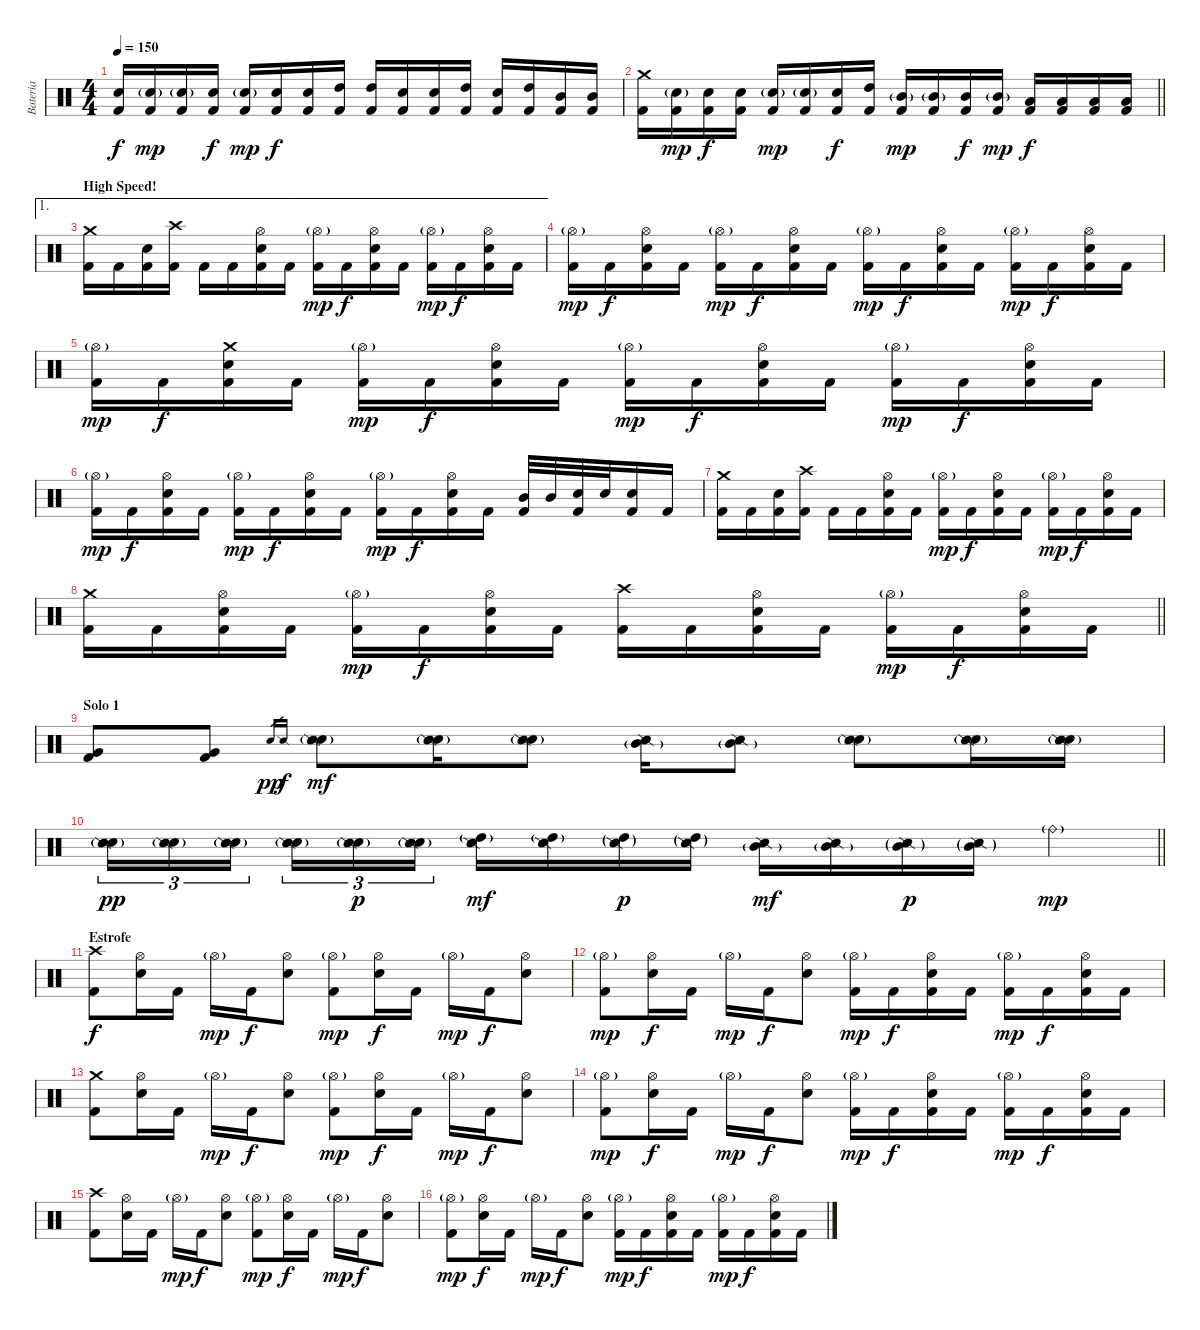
\track ("Bateria" "Bateria") {instrument percussion}
\staff {score}
\articulation defaults
\ts (4 4)
\tempo 150
\clef neutral
\ks c
("Electric Snare (hit)" "Kick (hit) 2").16{dy f} ("Electric Snare (hit)"{g} "Kick (hit) 2").16{dy mp} ("Electric Snare (hit)"{g} "Kick (hit) 2").16 ("Electric Snare (hit)" "Kick (hit) 2").16{dy f} ("Electric Snare (hit)"{g} "Kick (hit) 2").16{dy mp} ("Electric Snare (hit)" "Kick (hit) 2").16{dy f} ("Electric Snare (hit)" "Kick (hit) 2").16 ("High Tom (hit)" "Kick (hit) 2").16 ("High Tom (hit)" "Kick (hit) 2").16 ("Electric Snare (hit)" "Kick (hit) 2").16 ("Electric Snare (hit)" "Kick (hit) 2").16 ("High Tom (hit)" "Kick (hit) 2").16 ("Electric Snare (hit)" "Kick (hit) 2").16 ("High Tom (hit)" "Kick (hit) 2").16 ("Mid Tom (hit)" "Kick (hit) 2").16 ("Mid Tom (hit)" "Kick (hit) 2").16 |
\barLineRight lightlight
("Crash medium (hit)" "Kick (hit) 2").16 ("Electric Snare (hit)"{g} "Kick (hit) 2").16{dy mp} ("Electric Snare (hit)" "Kick (hit) 2").16{dy f} ("Electric Snare (hit)" "Kick (hit) 2").16 ("Electric Snare (hit)"{g} "Kick (hit) 2").16{dy mp} ("Electric Snare (hit)"{g} "Kick (hit) 2").16 ("Electric Snare (hit)" "Kick (hit) 2").16{dy f} ("High Tom (hit)" "Kick (hit) 2").16 ("Mid Tom (hit)"{g} "Kick (hit) 2").16{dy mp} ("Mid Tom (hit)"{g} "Kick (hit) 2").16 ("Mid Tom (hit)" "Kick (hit) 2").16{dy f} ("Mid Tom (hit)"{g} "Kick (hit) 2").16{dy mp} ("Low Tom (hit)" "Kick (hit) 2").16{dy f} ("Low Tom (hit)" "Kick (hit) 2").16 ("Low Tom (hit)" "Kick (hit) 2").16 ("Low Tom (hit)" "Kick (hit) 2").16 |
\ae 1
\section ("" "High Speed!")
("Crash medium (hit)" "Kick (hit) 2").16 "Kick (hit) 2".16 ("Electric Snare (hit)" "Kick (hit) 2").16 ("Crash high (hit)" "Kick (hit) 2").16 "Kick (hit) 2".16 "Kick (hit) 2".16 ("Hi-Hat (open)" "Electric Snare (hit)" "Kick (hit) 2").16 "Kick (hit) 2".16 ("Hi-Hat (open)"{g} "Kick (hit) 2").16{dy mp} "Kick (hit) 2".16{dy f} ("Hi-Hat (open)" "Electric Snare (hit)" "Kick (hit) 2").16 "Kick (hit) 2".16 ("Hi-Hat (open)"{g} "Kick (hit) 2").16{dy mp} "Kick (hit) 2".16{dy f} ("Hi-Hat (open)" "Electric Snare (hit)" "Kick (hit) 2").16 "Kick (hit) 2".16 |
("Hi-Hat (open)"{g} "Kick (hit) 2").16{dy mp} "Kick (hit) 2".16{dy f} ("Hi-Hat (open)" "Electric Snare (hit)" "Kick (hit) 2").16 "Kick (hit) 2".16 ("Hi-Hat (open)"{g} "Kick (hit) 2").16{dy mp} "Kick (hit) 2".16{dy f} ("Hi-Hat (open)" "Electric Snare (hit)" "Kick (hit) 2").16 "Kick (hit) 2".16 ("Hi-Hat (open)"{g} "Kick (hit) 2").16{dy mp} "Kick (hit) 2".16{dy f} ("Hi-Hat (open)" "Electric Snare (hit)" "Kick (hit) 2").16 "Kick (hit) 2".16 ("Hi-Hat (open)"{g} "Kick (hit) 2").16{dy mp} "Kick (hit) 2".16{dy f} ("Hi-Hat (open)" "Electric Snare (hit)" "Kick (hit) 2").16 "Kick (hit) 2".16 |
("Hi-Hat (open)"{g} "Kick (hit) 2").16{dy mp} "Kick (hit) 2".16{dy f} ("Crash medium (hit)" "Electric Snare (hit)" "Kick (hit) 2").16 "Kick (hit) 2".16 ("Hi-Hat (open)"{g} "Kick (hit) 2").16{dy mp} "Kick (hit) 2".16{dy f} ("Hi-Hat (open)" "Electric Snare (hit)" "Kick (hit) 2").16 "Kick (hit) 2".16 ("Hi-Hat (open)"{g} "Kick (hit) 2").16{dy mp} "Kick (hit) 2".16{dy f} ("Hi-Hat (open)" "Electric Snare (hit)" "Kick (hit) 2").16 "Kick (hit) 2".16 ("Hi-Hat (open)"{g} "Kick (hit) 2").16{dy mp} "Kick (hit) 2".16{dy f} ("Hi-Hat (open)" "Electric Snare (hit)" "Kick (hit) 2").16 "Kick (hit) 2".16 |
("Hi-Hat (open)"{g} "Kick (hit) 2").16{dy mp} "Kick (hit) 2".16{dy f} ("Hi-Hat (open)" "Electric Snare (hit)" "Kick (hit) 2").16 "Kick (hit) 2".16 ("Hi-Hat (open)"{g} "Kick (hit) 2").16{dy mp} "Kick (hit) 2".16{dy f} ("Hi-Hat (open)" "Electric Snare (hit)" "Kick (hit) 2").16 "Kick (hit) 2".16 ("Hi-Hat (open)"{g} "Kick (hit) 2").16{dy mp} "Kick (hit) 2".16{dy f} ("Hi-Hat (open)" "Electric Snare (hit)" "Kick (hit) 2").16 "Kick (hit) 2".16 ("Mid Tom (hit)" "Kick (hit) 2").32 "Mid Tom (hit)".32 ("Electric Snare (hit)" "Kick (hit) 2").32 "Electric Snare (hit)".32 ("Electric Snare (hit)" "Kick (hit) 2").16 "Kick (hit) 2".16 |
("Crash medium (hit)" "Kick (hit) 2").16 "Kick (hit) 2".16 ("Electric Snare (hit)" "Kick (hit) 2").16 ("Crash high (hit)" "Kick (hit) 2").16 "Kick (hit) 2".16 "Kick (hit) 2".16 ("Hi-Hat (open)" "Electric Snare (hit)" "Kick (hit) 2").16 "Kick (hit) 2".16 ("Hi-Hat (open)"{g} "Kick (hit) 2").16{dy mp} "Kick (hit) 2".16{dy f} ("Hi-Hat (open)" "Electric Snare (hit)" "Kick (hit) 2").16 "Kick (hit) 2".16 ("Hi-Hat (open)"{g} "Kick (hit) 2").16{dy mp} "Kick (hit) 2".16{dy f} ("Hi-Hat (open)" "Electric Snare (hit)" "Kick (hit) 2").16 "Kick (hit) 2".16 |
\barLineRight lightlight
("Crash medium (hit)" "Kick (hit) 2").16 "Kick (hit) 2".16 ("Hi-Hat (open)" "Electric Snare (hit)" "Kick (hit) 2").16 "Kick (hit) 2".16 ("Hi-Hat (open)"{g} "Kick (hit) 2").16{dy mp} "Kick (hit) 2".16{dy f} ("Hi-Hat (open)" "Electric Snare (hit)" "Kick (hit) 2").16 "Kick (hit) 2".16 ("Crash high (hit)" "Kick (hit) 2").16 "Kick (hit) 2".16 ("Hi-Hat (open)" "Electric Snare (hit)" "Kick (hit) 2").16 "Kick (hit) 2".16 ("Hi-Hat (open)"{g} "Kick (hit) 2").16{dy mp} "Kick (hit) 2".16{dy f} ("Hi-Hat (open)" "Electric Snare (hit)" "Kick (hit) 2").16 "Kick (hit) 2".16 |
\section ("" "Solo 1")
("Very Low Tom (hit)" "Kick (hit) 2").8 ("Very Low Tom (hit)" "Kick (hit) 2").8 "Electric Snare (hit)".16{gr dy pp} "Snare (side stick) 2".16{gr dy f} ("Electric Snare (hit)"{g} "Snare (side stick) 2").8{dy mf} ("Electric Snare (hit)"{g} "Snare (side stick) 2").16 ("Electric Snare (hit)"{g} "Snare (side stick) 2").8 ("Mid Tom (hit)"{g} "Snare (side stick) 2").16 ("Mid Tom (hit)"{g} "Snare (side stick) 2").8 ("Electric Snare (hit)"{g} "Snare (side stick) 2").8 ("Electric Snare (hit)"{g} "Snare (side stick) 2").16 ("Electric Snare (hit)"{g} "Snare (side stick) 2").16 |
\barLineRight lightlight
("Electric Snare (hit)"{g} "Snare (side stick) 2").16{tu (3 2) dy pp} ("Electric Snare (hit)"{g} "Snare (side stick) 2").16{tu (3 2)} ("Electric Snare (hit)"{g} "Snare (side stick) 2").16{tu (3 2) beam splitsecondary} ("Electric Snare (hit)"{g} "Snare (side stick) 2").16{tu (3 2)} ("Electric Snare (hit)"{g} "Snare (side stick) 2"{g}).16{tu (3 2) dy p} ("Electric Snare (hit)"{g} "Snare (side stick) 2"{g}).16{tu (3 2)} ("High Tom (hit)"{g} "Snare (side stick) 2").16{dy mf} ("High Tom (hit)"{g} "Snare (side stick) 2").16 ("High Tom (hit)"{g} "Snare (side stick) 2"{g}).16{dy p} ("High Tom (hit)"{g} "Snare (side stick) 2"{g}).16 ("Mid Tom (hit)"{g} "Snare (side stick) 2").16{dy mf} ("Mid Tom (hit)"{g} "Snare (side stick) 2").16 ("Mid Tom (hit)"{g} "Snare (side stick) 2"{g}).16{dy p} ("Mid Tom (hit)"{g} "Snare (side stick) 2"{g}).16 "Ride (bell)"{g}.4{dy mp} |
\section ("" "Estrofe")
("Crash high (hit)" "Kick (hit) 2").8{dy f} ("Hi-Hat (open)" "Electric Snare (hit)").16 "Kick (hit) 2".16 "Hi-Hat (open)"{g}.16{dy mp} "Kick (hit) 2".16{dy f} ("Hi-Hat (open)" "Electric Snare (hit)").8 ("Hi-Hat (open)"{g} "Kick (hit) 2").8{dy mp} ("Hi-Hat (open)" "Electric Snare (hit)").16{dy f} "Kick (hit) 2".16 "Hi-Hat (open)"{g}.16{dy mp} "Kick (hit) 2".16{dy f} ("Hi-Hat (open)" "Electric Snare (hit)").8 |
("Hi-Hat (open)"{g} "Kick (hit) 2").8{dy mp} ("Hi-Hat (open)" "Electric Snare (hit)").16{dy f} "Kick (hit) 2".16 "Hi-Hat (open)"{g}.16{dy mp} "Kick (hit) 2".16{dy f} ("Hi-Hat (open)" "Electric Snare (hit)").8 ("Hi-Hat (open)"{g} "Kick (hit) 2").16{dy mp} "Kick (hit) 2".16{dy f} ("Hi-Hat (open)" "Electric Snare (hit)" "Kick (hit) 2").16 "Kick (hit) 2".16 ("Hi-Hat (open)"{g} "Kick (hit) 2").16{dy mp} "Kick (hit) 2".16{dy f} ("Hi-Hat (open)" "Electric Snare (hit)" "Kick (hit) 2").16 "Kick (hit) 2".16 |
("Crash medium (hit)" "Kick (hit) 2").8 ("Hi-Hat (open)" "Electric Snare (hit)").16 "Kick (hit) 2".16 "Hi-Hat (open)"{g}.16{dy mp} "Kick (hit) 2".16{dy f} ("Hi-Hat (open)" "Electric Snare (hit)").8 ("Hi-Hat (open)"{g} "Kick (hit) 2").8{dy mp} ("Hi-Hat (open)" "Electric Snare (hit)").16{dy f} "Kick (hit) 2".16 "Hi-Hat (open)"{g}.16{dy mp} "Kick (hit) 2".16{dy f} ("Hi-Hat (open)" "Electric Snare (hit)").8 |
("Hi-Hat (open)"{g} "Kick (hit) 2").8{dy mp} ("Hi-Hat (open)" "Electric Snare (hit)").16{dy f} "Kick (hit) 2".16 "Hi-Hat (open)"{g}.16{dy mp} "Kick (hit) 2".16{dy f} ("Hi-Hat (open)" "Electric Snare (hit)").8 ("Hi-Hat (open)"{g} "Kick (hit) 2").16{dy mp} "Kick (hit) 2".16{dy f} ("Hi-Hat (open)" "Electric Snare (hit)" "Kick (hit) 2").16 "Kick (hit) 2".16 ("Hi-Hat (open)"{g} "Kick (hit) 2").16{dy mp} "Kick (hit) 2".16{dy f} ("Hi-Hat (open)" "Electric Snare (hit)" "Kick (hit) 2").16 "Kick (hit) 2".16 |
("Crash high (hit)" "Kick (hit) 2").8 ("Hi-Hat (open)" "Electric Snare (hit)").16 "Kick (hit) 2".16 "Hi-Hat (open)"{g}.16{dy mp} "Kick (hit) 2".16{dy f} ("Hi-Hat (open)" "Electric Snare (hit)").8 ("Hi-Hat (open)"{g} "Kick (hit) 2").8{dy mp} ("Hi-Hat (open)" "Electric Snare (hit)").16{dy f} "Kick (hit) 2".16 "Hi-Hat (open)"{g}.16{dy mp} "Kick (hit) 2".16{dy f} ("Hi-Hat (open)" "Electric Snare (hit)").8 |
("Hi-Hat (open)"{g} "Kick (hit) 2").8{dy mp} ("Hi-Hat (open)" "Electric Snare (hit)").16{dy f} "Kick (hit) 2".16 "Hi-Hat (open)"{g}.16{dy mp} "Kick (hit) 2".16{dy f} ("Hi-Hat (open)" "Electric Snare (hit)").8 ("Hi-Hat (open)"{g} "Kick (hit) 2").16{dy mp} "Kick (hit) 2".16{dy f} ("Hi-Hat (open)" "Electric Snare (hit)" "Kick (hit) 2").16 "Kick (hit) 2".16 ("Hi-Hat (open)"{g} "Kick (hit) 2").16{dy mp} "Kick (hit) 2".16{dy f} ("Hi-Hat (open)" "Electric Snare (hit)" "Kick (hit) 2").16 "Kick (hit) 2".16
